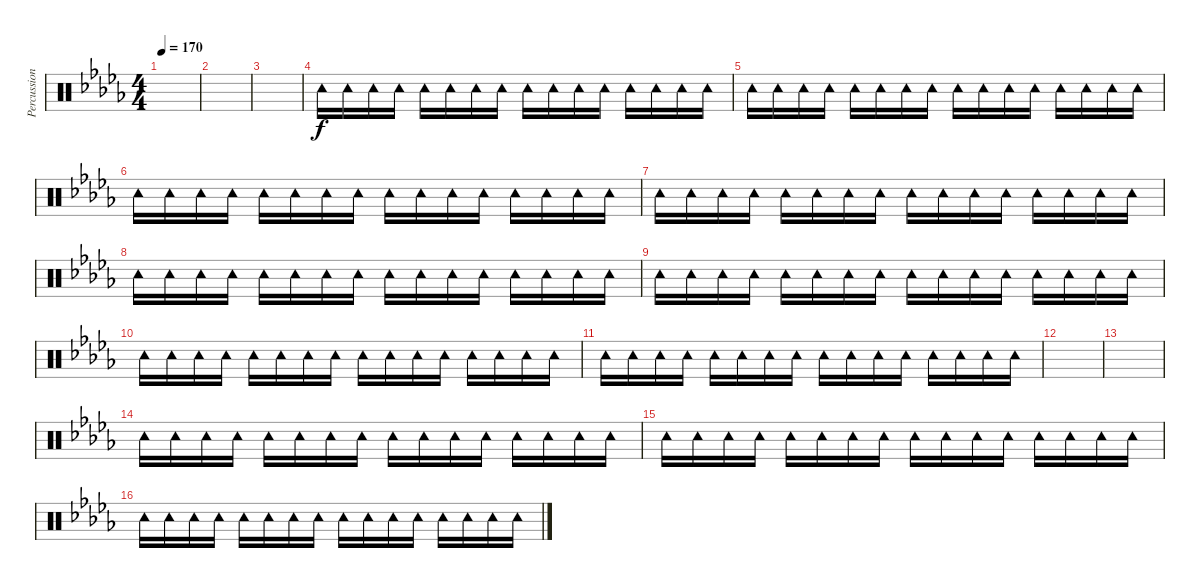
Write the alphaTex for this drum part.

\track ("Percussion" "Percussion") {instrument percussion}
\staff {score}
\articulation defaults
\ts (4 4)
\tempo 170
\clef neutral
\ks db
|
|
|
"Tambourine (hit)".16 "Tambourine (hit)".16 "Tambourine (hit)".16 "Tambourine (hit)".16 "Tambourine (hit)".16 "Tambourine (hit)".16 "Tambourine (hit)".16 "Tambourine (hit)".16 "Tambourine (hit)".16 "Tambourine (hit)".16 "Tambourine (hit)".16 "Tambourine (hit)".16 "Tambourine (hit)".16 "Tambourine (hit)".16 "Tambourine (hit)".16 "Tambourine (hit)".16 |
"Tambourine (hit)".16 "Tambourine (hit)".16 "Tambourine (hit)".16 "Tambourine (hit)".16 "Tambourine (hit)".16 "Tambourine (hit)".16 "Tambourine (hit)".16 "Tambourine (hit)".16 "Tambourine (hit)".16 "Tambourine (hit)".16 "Tambourine (hit)".16 "Tambourine (hit)".16 "Tambourine (hit)".16 "Tambourine (hit)".16 "Tambourine (hit)".16 "Tambourine (hit)".16 |
"Tambourine (hit)".16 "Tambourine (hit)".16 "Tambourine (hit)".16 "Tambourine (hit)".16 "Tambourine (hit)".16 "Tambourine (hit)".16 "Tambourine (hit)".16 "Tambourine (hit)".16 "Tambourine (hit)".16 "Tambourine (hit)".16 "Tambourine (hit)".16 "Tambourine (hit)".16 "Tambourine (hit)".16 "Tambourine (hit)".16 "Tambourine (hit)".16 "Tambourine (hit)".16 |
"Tambourine (hit)".16 "Tambourine (hit)".16 "Tambourine (hit)".16 "Tambourine (hit)".16 "Tambourine (hit)".16 "Tambourine (hit)".16 "Tambourine (hit)".16 "Tambourine (hit)".16 "Tambourine (hit)".16 "Tambourine (hit)".16 "Tambourine (hit)".16 "Tambourine (hit)".16 "Tambourine (hit)".16 "Tambourine (hit)".16 "Tambourine (hit)".16 "Tambourine (hit)".16 |
"Tambourine (hit)".16 "Tambourine (hit)".16 "Tambourine (hit)".16 "Tambourine (hit)".16 "Tambourine (hit)".16 "Tambourine (hit)".16 "Tambourine (hit)".16 "Tambourine (hit)".16 "Tambourine (hit)".16 "Tambourine (hit)".16 "Tambourine (hit)".16 "Tambourine (hit)".16 "Tambourine (hit)".16 "Tambourine (hit)".16 "Tambourine (hit)".16 "Tambourine (hit)".16 |
"Tambourine (hit)".16 "Tambourine (hit)".16 "Tambourine (hit)".16 "Tambourine (hit)".16 "Tambourine (hit)".16 "Tambourine (hit)".16 "Tambourine (hit)".16 "Tambourine (hit)".16 "Tambourine (hit)".16 "Tambourine (hit)".16 "Tambourine (hit)".16 "Tambourine (hit)".16 "Tambourine (hit)".16 "Tambourine (hit)".16 "Tambourine (hit)".16 "Tambourine (hit)".16 |
"Tambourine (hit)".16 "Tambourine (hit)".16 "Tambourine (hit)".16 "Tambourine (hit)".16 "Tambourine (hit)".16 "Tambourine (hit)".16 "Tambourine (hit)".16 "Tambourine (hit)".16 "Tambourine (hit)".16 "Tambourine (hit)".16 "Tambourine (hit)".16 "Tambourine (hit)".16 "Tambourine (hit)".16 "Tambourine (hit)".16 "Tambourine (hit)".16 "Tambourine (hit)".16 |
"Tambourine (hit)".16 "Tambourine (hit)".16 "Tambourine (hit)".16 "Tambourine (hit)".16 "Tambourine (hit)".16 "Tambourine (hit)".16 "Tambourine (hit)".16 "Tambourine (hit)".16 "Tambourine (hit)".16 "Tambourine (hit)".16 "Tambourine (hit)".16 "Tambourine (hit)".16 "Tambourine (hit)".16 "Tambourine (hit)".16 "Tambourine (hit)".16 "Tambourine (hit)".16 |
|
|
"Tambourine (hit)".16 "Tambourine (hit)".16 "Tambourine (hit)".16 "Tambourine (hit)".16 "Tambourine (hit)".16 "Tambourine (hit)".16 "Tambourine (hit)".16 "Tambourine (hit)".16 "Tambourine (hit)".16 "Tambourine (hit)".16 "Tambourine (hit)".16 "Tambourine (hit)".16 "Tambourine (hit)".16 "Tambourine (hit)".16 "Tambourine (hit)".16 "Tambourine (hit)".16 |
"Tambourine (hit)".16 "Tambourine (hit)".16 "Tambourine (hit)".16 "Tambourine (hit)".16 "Tambourine (hit)".16 "Tambourine (hit)".16 "Tambourine (hit)".16 "Tambourine (hit)".16 "Tambourine (hit)".16 "Tambourine (hit)".16 "Tambourine (hit)".16 "Tambourine (hit)".16 "Tambourine (hit)".16 "Tambourine (hit)".16 "Tambourine (hit)".16 "Tambourine (hit)".16 |
"Tambourine (hit)".16 "Tambourine (hit)".16 "Tambourine (hit)".16 "Tambourine (hit)".16 "Tambourine (hit)".16 "Tambourine (hit)".16 "Tambourine (hit)".16 "Tambourine (hit)".16 "Tambourine (hit)".16 "Tambourine (hit)".16 "Tambourine (hit)".16 "Tambourine (hit)".16 "Tambourine (hit)".16 "Tambourine (hit)".16 "Tambourine (hit)".16 "Tambourine (hit)".16
